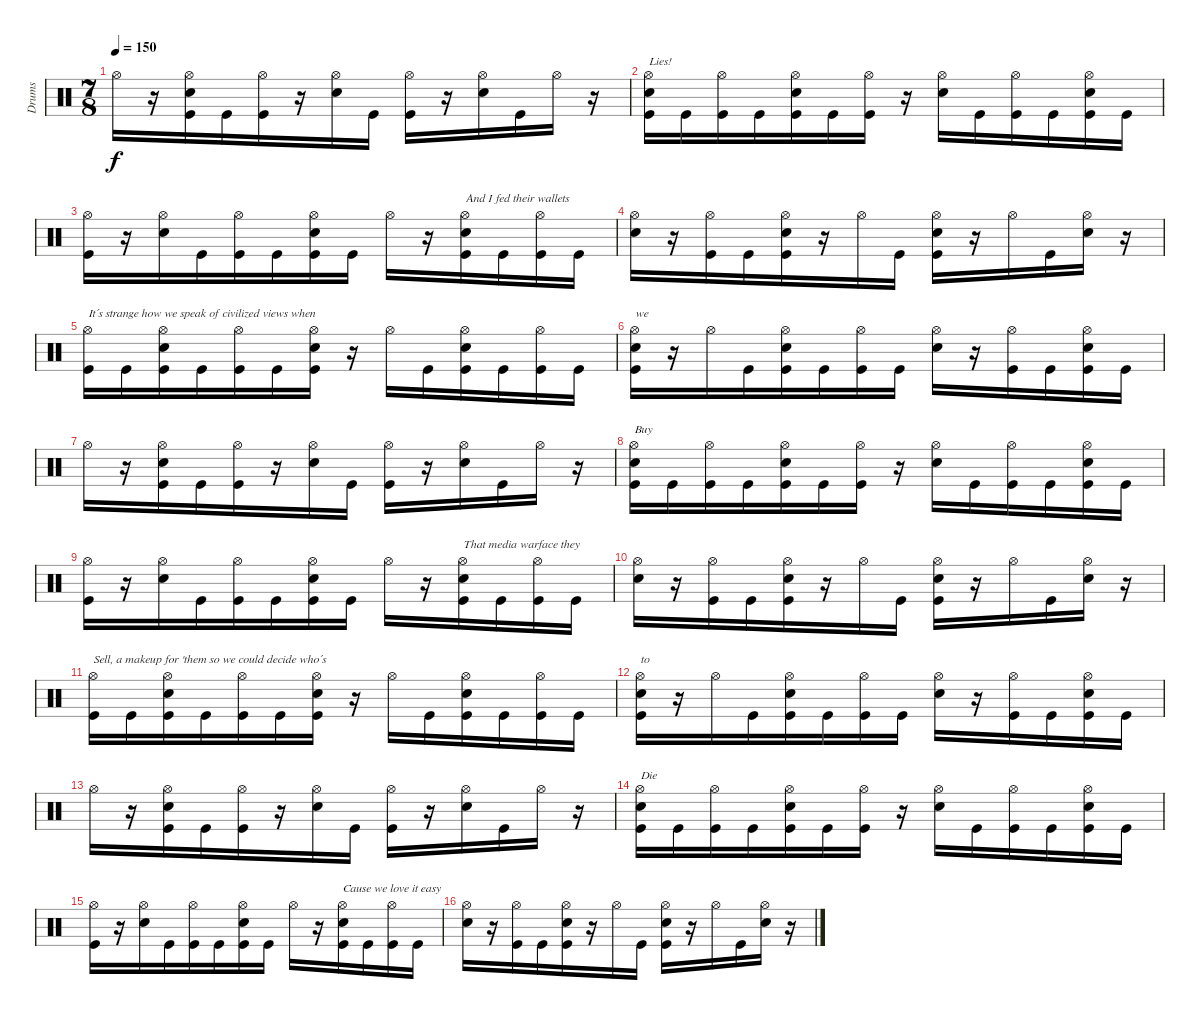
\track ("Drums" "Drums") {instrument percussion}
\staff {score}
\articulation defaults
\ts (7 8)
\tempo 150
\clef neutral
\ks c "Hi-Hat (open)".16{dy f}
r.16 ("Hi-Hat (open)" "Snare (hit) 2" "Kick (hit)").16 "Kick (hit)".16 ("Hi-Hat (open)" "Kick (hit)").16 r.16 ("Hi-Hat (open)" "Snare (hit) 2").16 "Kick (hit)".16 ("Hi-Hat (open)" "Kick (hit)").16 r.16 ("Hi-Hat (open)" "Snare (hit) 2").16 "Kick (hit)".16 "Hi-Hat (open)".16 r.16 |
("Hi-Hat (open)" "Snare (hit) 2" "Kick (hit)").16{txt "Lies!"} "Kick (hit)".16 ("Hi-Hat (open)" "Kick (hit)").16 "Kick (hit)".16 ("Hi-Hat (open)" "Snare (hit) 2" "Kick (hit)").16 "Kick (hit)".16 ("Hi-Hat (open)" "Kick (hit)").16 r.16 ("Hi-Hat (open)" "Snare (hit) 2").16 "Kick (hit)".16 ("Hi-Hat (open)" "Kick (hit)").16 "Kick (hit)".16 ("Hi-Hat (open)" "Snare (hit) 2" "Kick (hit)").16 "Kick (hit)".16 |
("Hi-Hat (open)" "Kick (hit)").16 r.16 ("Hi-Hat (open)" "Snare (hit) 2").16 "Kick (hit)".16 ("Hi-Hat (open)" "Kick (hit)").16 "Kick (hit)".16 ("Hi-Hat (open)" "Snare (hit) 2" "Kick (hit)").16 "Kick (hit)".16 "Hi-Hat (open)".16 r.16 ("Hi-Hat (open)" "Snare (hit) 2" "Kick (hit)").16{txt "And I fed their wallets"} "Kick (hit)".16 ("Hi-Hat (open)" "Kick (hit)").16 "Kick (hit)".16 |
("Hi-Hat (open)" "Snare (hit) 2").16 r.16 ("Hi-Hat (open)" "Kick (hit)").16 "Kick (hit)".16 ("Hi-Hat (open)" "Snare (hit) 2" "Kick (hit)").16 r.16 "Hi-Hat (open)".16 "Kick (hit)".16 ("Hi-Hat (open)" "Snare (hit) 2" "Kick (hit)").16 r.16 "Hi-Hat (open)".16 "Kick (hit)".16 ("Hi-Hat (open)" "Snare (hit) 2").16 r.16 |
("Hi-Hat (open)" "Kick (hit)").16{txt "It´s strange how we speak of civilized views when"} "Kick (hit)".16 ("Hi-Hat (open)" "Snare (hit) 2" "Kick (hit)").16 "Kick (hit)".16 ("Hi-Hat (open)" "Kick (hit)").16 "Kick (hit)".16 ("Hi-Hat (open)" "Snare (hit) 2" "Kick (hit)").16 r.16 "Hi-Hat (open)".16 "Kick (hit)".16 ("Hi-Hat (open)" "Snare (hit) 2" "Kick (hit)").16 "Kick (hit)".16 ("Hi-Hat (open)" "Kick (hit)").16 "Kick (hit)".16 |
("Hi-Hat (open)" "Snare (hit) 2" "Kick (hit)").16{txt "we"} r.16 "Hi-Hat (open)".16 "Kick (hit)".16 ("Hi-Hat (open)" "Snare (hit) 2" "Kick (hit)").16 "Kick (hit)".16 ("Hi-Hat (open)" "Kick (hit)").16 "Kick (hit)".16 ("Hi-Hat (open)" "Snare (hit) 2").16 r.16 ("Hi-Hat (open)" "Kick (hit)").16 "Kick (hit)".16 ("Hi-Hat (open)" "Snare (hit) 2" "Kick (hit)").16 "Kick (hit)".16 |
"Hi-Hat (open)".16 r.16 ("Hi-Hat (open)" "Snare (hit) 2" "Kick (hit)").16 "Kick (hit)".16 ("Hi-Hat (open)" "Kick (hit)").16 r.16 ("Hi-Hat (open)" "Snare (hit) 2").16 "Kick (hit)".16 ("Hi-Hat (open)" "Kick (hit)").16 r.16 ("Hi-Hat (open)" "Snare (hit) 2").16 "Kick (hit)".16 "Hi-Hat (open)".16 r.16 |
("Hi-Hat (open)" "Snare (hit) 2" "Kick (hit)").16{txt "Buy"} "Kick (hit)".16 ("Hi-Hat (open)" "Kick (hit)").16 "Kick (hit)".16 ("Hi-Hat (open)" "Snare (hit) 2" "Kick (hit)").16 "Kick (hit)".16 ("Hi-Hat (open)" "Kick (hit)").16 r.16 ("Hi-Hat (open)" "Snare (hit) 2").16 "Kick (hit)".16 ("Hi-Hat (open)" "Kick (hit)").16 "Kick (hit)".16 ("Hi-Hat (open)" "Snare (hit) 2" "Kick (hit)").16 "Kick (hit)".16 |
("Hi-Hat (open)" "Kick (hit)").16 r.16 ("Hi-Hat (open)" "Snare (hit) 2").16 "Kick (hit)".16 ("Hi-Hat (open)" "Kick (hit)").16 "Kick (hit)".16 ("Hi-Hat (open)" "Snare (hit) 2" "Kick (hit)").16 "Kick (hit)".16 "Hi-Hat (open)".16 r.16 ("Hi-Hat (open)" "Snare (hit) 2" "Kick (hit)").16{txt "That media warface they"} "Kick (hit)".16 ("Hi-Hat (open)" "Kick (hit)").16 "Kick (hit)".16 |
("Hi-Hat (open)" "Snare (hit) 2").16 r.16 ("Hi-Hat (open)" "Kick (hit)").16 "Kick (hit)".16 ("Hi-Hat (open)" "Snare (hit) 2" "Kick (hit)").16 r.16 "Hi-Hat (open)".16 "Kick (hit)".16 ("Hi-Hat (open)" "Snare (hit) 2" "Kick (hit)").16 r.16 "Hi-Hat (open)".16 "Kick (hit)".16 ("Hi-Hat (open)" "Snare (hit) 2").16 r.16 |
("Hi-Hat (open)" "Kick (hit)").16{txt "Sell, a makeup for 'them so we could decide who´s "} "Kick (hit)".16 ("Hi-Hat (open)" "Snare (hit) 2" "Kick (hit)").16 "Kick (hit)".16 ("Hi-Hat (open)" "Kick (hit)").16 "Kick (hit)".16 ("Hi-Hat (open)" "Snare (hit) 2" "Kick (hit)").16 r.16 "Hi-Hat (open)".16 "Kick (hit)".16 ("Hi-Hat (open)" "Snare (hit) 2" "Kick (hit)").16 "Kick (hit)".16 ("Hi-Hat (open)" "Kick (hit)").16 "Kick (hit)".16 |
("Hi-Hat (open)" "Snare (hit) 2" "Kick (hit)").16{txt "to"} r.16 "Hi-Hat (open)".16 "Kick (hit)".16 ("Hi-Hat (open)" "Snare (hit) 2" "Kick (hit)").16 "Kick (hit)".16 ("Hi-Hat (open)" "Kick (hit)").16 "Kick (hit)".16 ("Hi-Hat (open)" "Snare (hit) 2").16 r.16 ("Hi-Hat (open)" "Kick (hit)").16 "Kick (hit)".16 ("Hi-Hat (open)" "Snare (hit) 2" "Kick (hit)").16 "Kick (hit)".16 |
"Hi-Hat (open)".16 r.16 ("Hi-Hat (open)" "Snare (hit) 2" "Kick (hit)").16 "Kick (hit)".16 ("Hi-Hat (open)" "Kick (hit)").16 r.16 ("Hi-Hat (open)" "Snare (hit) 2").16 "Kick (hit)".16 ("Hi-Hat (open)" "Kick (hit)").16 r.16 ("Hi-Hat (open)" "Snare (hit) 2").16 "Kick (hit)".16 "Hi-Hat (open)".16 r.16 |
("Hi-Hat (open)" "Snare (hit) 2" "Kick (hit)").16{txt "Die"} "Kick (hit)".16 ("Hi-Hat (open)" "Kick (hit)").16 "Kick (hit)".16 ("Hi-Hat (open)" "Snare (hit) 2" "Kick (hit)").16 "Kick (hit)".16 ("Hi-Hat (open)" "Kick (hit)").16 r.16 ("Hi-Hat (open)" "Snare (hit) 2").16 "Kick (hit)".16 ("Hi-Hat (open)" "Kick (hit)").16 "Kick (hit)".16 ("Hi-Hat (open)" "Snare (hit) 2" "Kick (hit)").16 "Kick (hit)".16 |
("Hi-Hat (open)" "Kick (hit)").16 r.16 ("Hi-Hat (open)" "Snare (hit) 2").16 "Kick (hit)".16 ("Hi-Hat (open)" "Kick (hit)").16 "Kick (hit)".16 ("Hi-Hat (open)" "Snare (hit) 2" "Kick (hit)").16 "Kick (hit)".16 "Hi-Hat (open)".16 r.16 ("Hi-Hat (open)" "Snare (hit) 2" "Kick (hit)").16{txt "Cause we love it easy"} "Kick (hit)".16 ("Hi-Hat (open)" "Kick (hit)").16 "Kick (hit)".16 |
("Hi-Hat (open)" "Snare (hit) 2").16 r.16 ("Hi-Hat (open)" "Kick (hit)").16 "Kick (hit)".16 ("Hi-Hat (open)" "Snare (hit) 2" "Kick (hit)").16 r.16 "Hi-Hat (open)".16 "Kick (hit)".16 ("Hi-Hat (open)" "Snare (hit) 2" "Kick (hit)").16 r.16 "Hi-Hat (open)".16 "Kick (hit)".16 ("Hi-Hat (open)" "Snare (hit) 2").16 r.16
